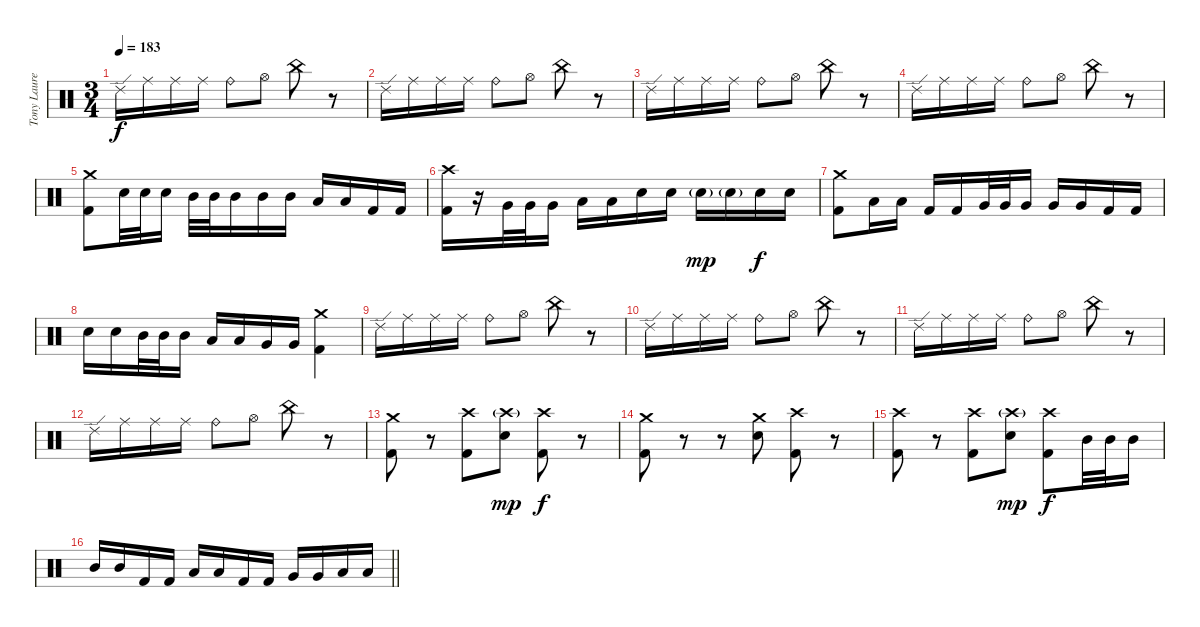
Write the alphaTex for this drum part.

\track ("Tony Laureano" "Tony Laure") {instrument percussion}
\staff {score}
\articulation defaults
\ts (3 4)
\tempo 183
\clef neutral
\ks c "Ride (edge) 2".16{dy f} "Ride (middle)".16 "Ride (middle)".16 "Ride (middle)".16 "Ride (bell)".8 "Hi-Hat (open)".8 "China (hit)".8
r.8 |
"Ride (edge) 2".16 "Ride (middle)".16 "Ride (middle)".16 "Ride (middle)".16 "Ride (bell)".8 "Hi-Hat (open)".8 "China (hit)".8 r.8 |
"Ride (edge) 2".16 "Ride (middle)".16 "Ride (middle)".16 "Ride (middle)".16 "Ride (bell)".8 "Hi-Hat (open)".8 "China (hit)".8 r.8 |
"Ride (edge) 2".16 "Ride (middle)".16 "Ride (middle)".16 "Ride (middle)".16 "Ride (bell)".8 "Hi-Hat (open)".8 "China (hit)".8 r.8 |
("Crash medium (hit)" "Kick (hit) 2").8 "Electric Snare (hit)".32 "Electric Snare (hit)".32 "Electric Snare (hit)".16 "Mid Tom (hit)".32 "Mid Tom (hit)".32 "Mid Tom (hit)".16 "Mid Tom (hit)".16 "Mid Tom (hit)".16 "Low Tom (hit)".16 "Low Tom (hit)".16 "Kick (hit) 2".16 "Kick (hit) 2".16 |
("Crash high (hit)" "Kick (hit) 2").16 r.16 "Very Low Tom (hit)".32 "Very Low Tom (hit)".32 "Very Low Tom (hit)".16 "Low Floor Tom (hit)".16 "Low Floor Tom (hit)".16 "Electric Snare (hit)".16 "Electric Snare (hit)".16 "Electric Snare (hit)"{g}.16{dy mp} "Electric Snare (hit)"{g}.16 "Electric Snare (hit)".16{dy f} "Electric Snare (hit)".16 |
("Crash medium (hit)" "Kick (hit) 2").8 "Low Tom (hit)".16 "Low Tom (hit)".16 "Kick (hit) 2".16 "Kick (hit) 2".16 "Very Low Tom (hit)".32 "Very Low Tom (hit)".32 "Very Low Tom (hit)".16 "Very Low Tom (hit)".16 "Very Low Tom (hit)".16 "Kick (hit) 2".16 "Kick (hit) 2".16 |
"Electric Snare (hit)".16 "Electric Snare (hit)".16 "Mid Tom (hit)".32 "Mid Tom (hit)".32 "Mid Tom (hit)".16 "Low Tom (hit)".16 "Low Tom (hit)".16 "Very Low Tom (hit)".16 "Very Low Tom (hit)".16 ("Crash medium (hit)" "Kick (hit) 2").4 |
"Ride (edge) 2".16 "Ride (middle)".16 "Ride (middle)".16 "Ride (middle)".16 "Ride (bell)".8 "Hi-Hat (open)".8 "China (hit)".8 r.8 |
"Ride (edge) 2".16 "Ride (middle)".16 "Ride (middle)".16 "Ride (middle)".16 "Ride (bell)".8 "Hi-Hat (open)".8 "China (hit)".8 r.8 |
"Ride (edge) 2".16 "Ride (middle)".16 "Ride (middle)".16 "Ride (middle)".16 "Ride (bell)".8 "Hi-Hat (open)".8 "China (hit)".8 r.8 |
"Ride (edge) 2".16 "Ride (middle)".16 "Ride (middle)".16 "Ride (middle)".16 "Ride (bell)".8 "Hi-Hat (open)".8 "China (hit)".8 r.8 |
("Crash medium (hit)" "Kick (hit) 2").8 r.8 ("Crash high (hit)" "Kick (hit) 2").8 ("Crash high (hit)"{g} "Electric Snare (hit)").8{dy mp} ("Crash high (hit)" "Kick (hit) 2").8{dy f} r.8 |
("Crash medium (hit)" "Kick (hit) 2").8 r.8 r.8 ("Crash medium (hit)" "Electric Snare (hit)").8 ("Crash high (hit)" "Kick (hit) 2").8 r.8 |
("Crash high (hit)" "Kick (hit) 2").8 r.8 ("Crash high (hit)" "Kick (hit) 2").8 ("Crash high (hit)"{g} "Electric Snare (hit)").8{dy mp} ("Crash high (hit)" "Kick (hit) 2").8{dy f} "Mid Tom (hit)".32 "Mid Tom (hit)".32 "Mid Tom (hit)".16 |
\barLineRight lightlight "Mid Tom (hit)".16 "Mid Tom (hit)".16 "Kick (hit) 2".16 "Kick (hit) 2".16 "Low Tom (hit)".16 "Low Tom (hit)".16 "Kick (hit) 2".16 "Kick (hit) 2".16 "Very Low Tom (hit)".16 "Very Low Tom (hit)".16 "Low Floor Tom (hit)".16 "Low Floor Tom (hit)".16
